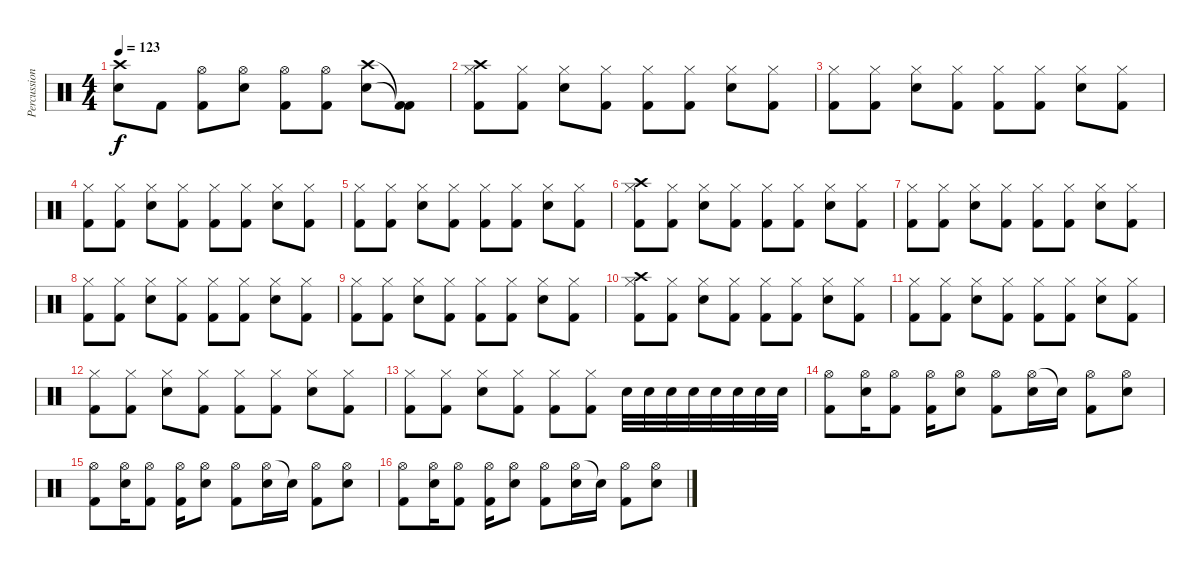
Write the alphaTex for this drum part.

\track ("Percussion" "Percussion") {instrument percussion}
\staff {score}
\articulation defaults
\ts (4 4)
\tempo 123
\clef neutral
\ks c
("Crash high (hit)" "Electric Snare (hit)").8{dy f} "Kick (hit) 2".8 ("Hi-Hat (open)" "Kick (hit) 2").8 ("Hi-Hat (open)" "Electric Snare (hit)").8 ("Hi-Hat (open)" "Kick (hit) 2").8 ("Hi-Hat (open)" "Kick (hit) 2").8 ("Crash high (hit)" "Electric Snare (hit)").8 ("Kick (hit) 2"{t} "Kick (hit) 2"{t}).8 |
("Crash high (hit)" "Kick (hit) 2" "Hi-Hat (closed)").8 ("Kick (hit) 2" "Hi-Hat (closed)").8 ("Electric Snare (hit)" "Hi-Hat (closed)").8 ("Kick (hit) 2" "Hi-Hat (closed)").8 ("Kick (hit) 2" "Hi-Hat (closed)").8 ("Kick (hit) 2" "Hi-Hat (closed)").8 ("Electric Snare (hit)" "Hi-Hat (closed)").8 ("Kick (hit) 2" "Hi-Hat (closed)").8 |
("Kick (hit) 2" "Hi-Hat (closed)").8 ("Kick (hit) 2" "Hi-Hat (closed)").8 ("Electric Snare (hit)" "Hi-Hat (closed)").8 ("Kick (hit) 2" "Hi-Hat (closed)").8 ("Kick (hit) 2" "Hi-Hat (closed)").8 ("Kick (hit) 2" "Hi-Hat (closed)").8 ("Electric Snare (hit)" "Hi-Hat (closed)").8 ("Kick (hit) 2" "Hi-Hat (closed)").8 |
("Kick (hit) 2" "Hi-Hat (closed)").8 ("Kick (hit) 2" "Hi-Hat (closed)").8 ("Electric Snare (hit)" "Hi-Hat (closed)").8 ("Kick (hit) 2" "Hi-Hat (closed)").8 ("Kick (hit) 2" "Hi-Hat (closed)").8 ("Kick (hit) 2" "Hi-Hat (closed)").8 ("Electric Snare (hit)" "Hi-Hat (closed)").8 ("Kick (hit) 2" "Hi-Hat (closed)").8 |
("Kick (hit) 2" "Hi-Hat (closed)").8 ("Kick (hit) 2" "Hi-Hat (closed)").8 ("Electric Snare (hit)" "Hi-Hat (closed)").8 ("Kick (hit) 2" "Hi-Hat (closed)").8 ("Kick (hit) 2" "Hi-Hat (closed)").8 ("Kick (hit) 2" "Hi-Hat (closed)").8 ("Electric Snare (hit)" "Hi-Hat (closed)").8 ("Kick (hit) 2" "Hi-Hat (closed)").8 |
("Crash high (hit)" "Kick (hit) 2" "Hi-Hat (closed)").8 ("Kick (hit) 2" "Hi-Hat (closed)").8 ("Electric Snare (hit)" "Hi-Hat (closed)").8 ("Kick (hit) 2" "Hi-Hat (closed)").8 ("Kick (hit) 2" "Hi-Hat (closed)").8 ("Kick (hit) 2" "Hi-Hat (closed)").8 ("Electric Snare (hit)" "Hi-Hat (closed)").8 ("Kick (hit) 2" "Hi-Hat (closed)").8 |
("Kick (hit) 2" "Hi-Hat (closed)").8 ("Kick (hit) 2" "Hi-Hat (closed)").8 ("Electric Snare (hit)" "Hi-Hat (closed)").8 ("Kick (hit) 2" "Hi-Hat (closed)").8 ("Kick (hit) 2" "Hi-Hat (closed)").8 ("Kick (hit) 2" "Hi-Hat (closed)").8 ("Electric Snare (hit)" "Hi-Hat (closed)").8 ("Kick (hit) 2" "Hi-Hat (closed)").8 |
("Kick (hit) 2" "Hi-Hat (closed)").8 ("Kick (hit) 2" "Hi-Hat (closed)").8 ("Electric Snare (hit)" "Hi-Hat (closed)").8 ("Kick (hit) 2" "Hi-Hat (closed)").8 ("Kick (hit) 2" "Hi-Hat (closed)").8 ("Kick (hit) 2" "Hi-Hat (closed)").8 ("Electric Snare (hit)" "Hi-Hat (closed)").8 ("Kick (hit) 2" "Hi-Hat (closed)").8 |
("Kick (hit) 2" "Hi-Hat (closed)").8 ("Kick (hit) 2" "Hi-Hat (closed)").8 ("Electric Snare (hit)" "Hi-Hat (closed)").8 ("Kick (hit) 2" "Hi-Hat (closed)").8 ("Kick (hit) 2" "Hi-Hat (closed)").8 ("Kick (hit) 2" "Hi-Hat (closed)").8 ("Electric Snare (hit)" "Hi-Hat (closed)").8 ("Kick (hit) 2" "Hi-Hat (closed)").8 |
("Crash high (hit)" "Kick (hit) 2" "Hi-Hat (closed)").8 ("Kick (hit) 2" "Hi-Hat (closed)").8 ("Electric Snare (hit)" "Hi-Hat (closed)").8 ("Kick (hit) 2" "Hi-Hat (closed)").8 ("Kick (hit) 2" "Hi-Hat (closed)").8 ("Kick (hit) 2" "Hi-Hat (closed)").8 ("Electric Snare (hit)" "Hi-Hat (closed)").8 ("Kick (hit) 2" "Hi-Hat (closed)").8 |
("Kick (hit) 2" "Hi-Hat (closed)").8 ("Kick (hit) 2" "Hi-Hat (closed)").8 ("Electric Snare (hit)" "Hi-Hat (closed)").8 ("Kick (hit) 2" "Hi-Hat (closed)").8 ("Kick (hit) 2" "Hi-Hat (closed)").8 ("Kick (hit) 2" "Hi-Hat (closed)").8 ("Electric Snare (hit)" "Hi-Hat (closed)").8 ("Kick (hit) 2" "Hi-Hat (closed)").8 |
("Kick (hit) 2" "Hi-Hat (closed)").8 ("Kick (hit) 2" "Hi-Hat (closed)").8 ("Electric Snare (hit)" "Hi-Hat (closed)").8 ("Kick (hit) 2" "Hi-Hat (closed)").8 ("Kick (hit) 2" "Hi-Hat (closed)").8 ("Kick (hit) 2" "Hi-Hat (closed)").8 ("Electric Snare (hit)" "Hi-Hat (closed)").8 ("Kick (hit) 2" "Hi-Hat (closed)").8 |
("Kick (hit) 2" "Hi-Hat (closed)").8 ("Kick (hit) 2" "Hi-Hat (closed)").8 ("Electric Snare (hit)" "Hi-Hat (closed)").8 ("Kick (hit) 2" "Hi-Hat (closed)").8 ("Kick (hit) 2" "Hi-Hat (closed)").8 ("Kick (hit) 2" "Hi-Hat (closed)").8 "Electric Snare (hit)".32 "Electric Snare (hit)".32 "Electric Snare (hit)".32 "Electric Snare (hit)".32 "Electric Snare (hit)".32 "Electric Snare (hit)".32 "Electric Snare (hit)".32 "Electric Snare (hit)".32 |
("Hi-Hat (open)" "Kick (hit) 2").8 ("Hi-Hat (open)" "Electric Snare (hit)").16 ("Hi-Hat (open)" "Kick (hit) 2").8 ("Hi-Hat (open)" "Kick (hit) 2").16 ("Hi-Hat (open)" "Electric Snare (hit)").8 ("Hi-Hat (open)" "Kick (hit) 2").8 ("Hi-Hat (open)" "Electric Snare (hit)").16 "Snare (hit)"{t}.16 ("Hi-Hat (open)" "Kick (hit) 2").8 ("Hi-Hat (open)" "Electric Snare (hit)").8 |
("Hi-Hat (open)" "Kick (hit) 2").8 ("Hi-Hat (open)" "Electric Snare (hit)").16 ("Hi-Hat (open)" "Kick (hit) 2").8 ("Hi-Hat (open)" "Kick (hit) 2").16 ("Hi-Hat (open)" "Electric Snare (hit)").8 ("Hi-Hat (open)" "Kick (hit) 2").8 ("Hi-Hat (open)" "Electric Snare (hit)").16 "Snare (hit)"{t}.16 ("Hi-Hat (open)" "Kick (hit) 2").8 ("Hi-Hat (open)" "Electric Snare (hit)").8 |
("Hi-Hat (open)" "Kick (hit) 2").8 ("Hi-Hat (open)" "Electric Snare (hit)").16 ("Hi-Hat (open)" "Kick (hit) 2").8 ("Hi-Hat (open)" "Kick (hit) 2").16 ("Hi-Hat (open)" "Electric Snare (hit)").8 ("Hi-Hat (open)" "Kick (hit) 2").8 ("Hi-Hat (open)" "Electric Snare (hit)").16 "Snare (hit)"{t}.16 ("Hi-Hat (open)" "Kick (hit) 2").8 ("Hi-Hat (open)" "Electric Snare (hit)").8
